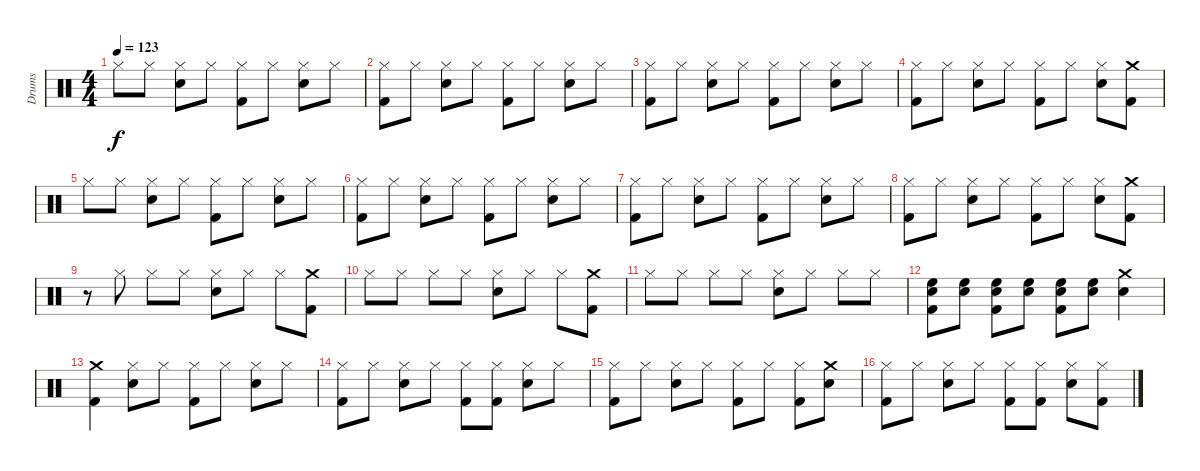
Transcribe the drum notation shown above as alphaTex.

\track ("Drums" "Drums") {instrument percussion}
\staff {score}
\articulation defaults
\ts (4 4)
\tempo 123
\clef neutral
\ks c "Hi-Hat (closed)".8{dy f} "Hi-Hat (closed)".8
("Snare (hit) 2" "Hi-Hat (closed)").8 "Hi-Hat (closed)".8 ("Kick (hit) 2" "Hi-Hat (closed)").8 "Hi-Hat (closed)".8 ("Snare (hit) 2" "Hi-Hat (closed)").8 "Hi-Hat (closed)".8 |
("Kick (hit) 2" "Hi-Hat (closed)").8 "Hi-Hat (closed)".8 ("Snare (hit) 2" "Hi-Hat (closed)").8 "Hi-Hat (closed)".8 ("Kick (hit) 2" "Hi-Hat (closed)").8 "Hi-Hat (closed)".8 ("Snare (hit) 2" "Hi-Hat (closed)").8 "Hi-Hat (closed)".8 |
("Kick (hit) 2" "Hi-Hat (closed)").8 "Hi-Hat (closed)".8 ("Snare (hit) 2" "Hi-Hat (closed)").8 "Hi-Hat (closed)".8 ("Kick (hit) 2" "Hi-Hat (closed)").8 "Hi-Hat (closed)".8 ("Snare (hit) 2" "Hi-Hat (closed)").8 "Hi-Hat (closed)".8 |
("Kick (hit) 2" "Hi-Hat (closed)").8 "Hi-Hat (closed)".8 ("Snare (hit) 2" "Hi-Hat (closed)").8 "Hi-Hat (closed)".8 ("Kick (hit) 2" "Hi-Hat (closed)").8 "Hi-Hat (closed)".8 ("Snare (hit) 2" "Hi-Hat (closed)").8 ("Kick (hit) 2" "Crash medium (hit)").8 |
"Hi-Hat (closed)".8 "Hi-Hat (closed)".8 ("Snare (hit) 2" "Hi-Hat (closed)").8 "Hi-Hat (closed)".8 ("Kick (hit) 2" "Hi-Hat (closed)").8 "Hi-Hat (closed)".8 ("Snare (hit) 2" "Hi-Hat (closed)").8 "Hi-Hat (closed)".8 |
("Kick (hit) 2" "Hi-Hat (closed)").8 "Hi-Hat (closed)".8 ("Snare (hit) 2" "Hi-Hat (closed)").8 "Hi-Hat (closed)".8 ("Kick (hit) 2" "Hi-Hat (closed)").8 "Hi-Hat (closed)".8 ("Snare (hit) 2" "Hi-Hat (closed)").8 "Hi-Hat (closed)".8 |
("Kick (hit) 2" "Hi-Hat (closed)").8 "Hi-Hat (closed)".8 ("Snare (hit) 2" "Hi-Hat (closed)").8 "Hi-Hat (closed)".8 ("Kick (hit) 2" "Hi-Hat (closed)").8 "Hi-Hat (closed)".8 ("Snare (hit) 2" "Hi-Hat (closed)").8 "Hi-Hat (closed)".8 |
("Kick (hit) 2" "Hi-Hat (closed)").8 "Hi-Hat (closed)".8 ("Snare (hit) 2" "Hi-Hat (closed)").8 "Hi-Hat (closed)".8 ("Kick (hit) 2" "Hi-Hat (closed)").8 "Hi-Hat (closed)".8 ("Snare (hit) 2" "Hi-Hat (closed)").8 ("Kick (hit) 2" "Crash medium (hit)").8 |
r.8 "Hi-Hat (closed)".8 "Hi-Hat (closed)".8 "Hi-Hat (closed)".8 ("Snare (hit) 2" "Hi-Hat (closed)").8 "Hi-Hat (closed)".8 "Hi-Hat (closed)".8 ("Kick (hit) 2" "Crash medium (hit)").8 |
"Hi-Hat (closed)".8 "Hi-Hat (closed)".8 "Hi-Hat (closed)".8 "Hi-Hat (closed)".8 ("Snare (hit) 2" "Hi-Hat (closed)").8 "Hi-Hat (closed)".8 "Hi-Hat (closed)".8 ("Crash medium (hit)" "Kick (hit) 2").8 |
"Hi-Hat (closed)".8 "Hi-Hat (closed)".8 "Hi-Hat (closed)".8 "Hi-Hat (closed)".8 ("Snare (hit) 2" "Hi-Hat (closed)").8 "Hi-Hat (closed)".8 "Hi-Hat (closed)".8 "Hi-Hat (closed)".8 |
("Kick (hit) 2" "Snare (hit) 2" "High Floor Tom (hit)").8 ("Snare (hit) 2" "High Floor Tom (hit)").8 ("Kick (hit) 2" "Snare (hit) 2" "High Floor Tom (hit)").8 ("Snare (hit) 2" "High Floor Tom (hit)").8 ("Kick (hit) 2" "Snare (hit) 2" "High Floor Tom (hit)").8 ("Snare (hit) 2" "High Floor Tom (hit)").8 ("Crash medium (hit)" "Snare (hit) 2").4 |
("Kick (hit) 2" "Crash medium (hit)").4 ("Snare (hit) 2" "Hi-Hat (closed)").8 "Hi-Hat (closed)".8 ("Hi-Hat (closed)" "Kick (hit) 2").8 "Hi-Hat (closed)".8 ("Snare (hit) 2" "Hi-Hat (closed)").8 "Hi-Hat (closed)".8 |
("Hi-Hat (closed)" "Kick (hit) 2").8 "Hi-Hat (closed)".8 ("Snare (hit) 2" "Hi-Hat (closed)").8 "Hi-Hat (closed)".8 ("Kick (hit) 2" "Hi-Hat (closed)").8 ("Kick (hit) 2" "Hi-Hat (closed)").8 ("Snare (hit) 2" "Hi-Hat (closed)").8 "Hi-Hat (closed)".8 |
("Hi-Hat (closed)" "Kick (hit) 2").8 "Hi-Hat (closed)".8 ("Snare (hit) 2" "Hi-Hat (closed)").8 "Hi-Hat (closed)".8 ("Hi-Hat (closed)" "Kick (hit) 2").8 "Hi-Hat (closed)".8 ("Hi-Hat (closed)" "Kick (hit) 2").8 ("Crash medium (hit)" "Snare (hit) 2").8 |
("Hi-Hat (closed)" "Kick (hit) 2").8 "Hi-Hat (closed)".8 ("Snare (hit) 2" "Hi-Hat (closed)").8 "Hi-Hat (closed)".8 ("Kick (hit) 2" "Hi-Hat (closed)").8 ("Kick (hit) 2" "Hi-Hat (closed)").8 ("Snare (hit) 2" "Hi-Hat (closed)").8 ("Kick (hit) 2" "Hi-Hat (closed)").8
